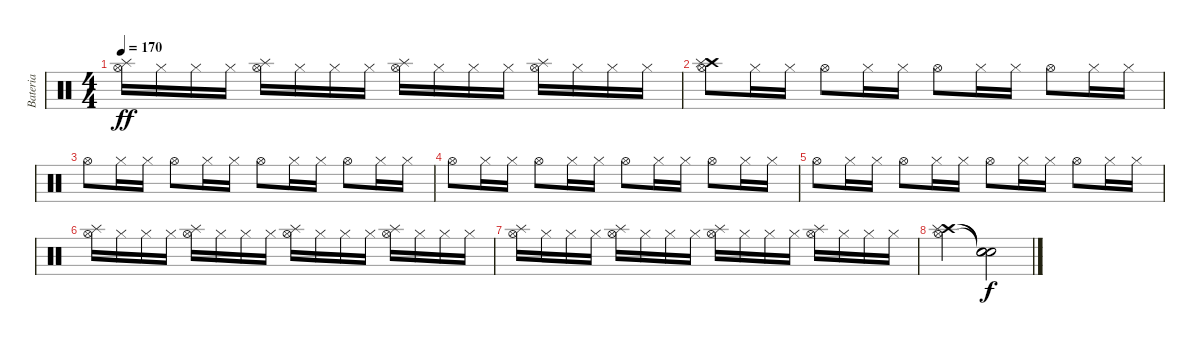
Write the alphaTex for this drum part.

\track ("Bateria" "Bateria") {instrument percussion}
\staff {score}
\articulation defaults
\ts (4 4)
\tempo 170
\clef neutral
\ks c
("Hi-Hat (open)" "Splash (hit)").16{dy ff} "Hi-Hat (closed)".16 "Hi-Hat (closed)".16 "Hi-Hat (closed)".16 ("Hi-Hat (open)" "Splash (hit)").16 "Hi-Hat (closed)".16 "Hi-Hat (closed)".16 "Hi-Hat (closed)".16 ("Hi-Hat (open)" "Splash (hit)").16 "Hi-Hat (closed)".16 "Hi-Hat (closed)".16 "Hi-Hat (closed)".16 ("Hi-Hat (open)" "Splash (hit)").16 "Hi-Hat (closed)".16 "Hi-Hat (closed)".16 "Hi-Hat (closed)".16 |
("Hi-Hat (open)" "Crash high (hit)" "Splash (hit)").8 "Hi-Hat (closed)".16 "Hi-Hat (closed)".16 "Hi-Hat (open)".8 "Hi-Hat (closed)".16 "Hi-Hat (closed)".16 "Hi-Hat (open)".8 "Hi-Hat (closed)".16 "Hi-Hat (closed)".16 "Hi-Hat (open)".8 "Hi-Hat (closed)".16 "Hi-Hat (closed)".16 |
"Hi-Hat (open)".8 "Hi-Hat (closed)".16 "Hi-Hat (closed)".16 "Hi-Hat (open)".8 "Hi-Hat (closed)".16 "Hi-Hat (closed)".16 "Hi-Hat (open)".8 "Hi-Hat (closed)".16 "Hi-Hat (closed)".16 "Hi-Hat (open)".8 "Hi-Hat (closed)".16 "Hi-Hat (closed)".16 |
"Hi-Hat (open)".8 "Hi-Hat (closed)".16 "Hi-Hat (closed)".16 "Hi-Hat (open)".8 "Hi-Hat (closed)".16 "Hi-Hat (closed)".16 "Hi-Hat (open)".8 "Hi-Hat (closed)".16 "Hi-Hat (closed)".16 "Hi-Hat (open)".8 "Hi-Hat (closed)".16 "Hi-Hat (closed)".16 |
"Hi-Hat (open)".8 "Hi-Hat (closed)".16 "Hi-Hat (closed)".16 "Hi-Hat (open)".8 "Hi-Hat (closed)".16 "Hi-Hat (closed)".16 "Hi-Hat (open)".8 "Hi-Hat (closed)".16 "Hi-Hat (closed)".16 "Hi-Hat (open)".8 "Hi-Hat (closed)".16 "Hi-Hat (closed)".16 |
("Hi-Hat (open)" "Splash (hit)").16 "Hi-Hat (closed)".16 "Hi-Hat (closed)".16 "Hi-Hat (closed)".16 ("Hi-Hat (open)" "Splash (hit)").16 "Hi-Hat (closed)".16 "Hi-Hat (closed)".16 "Hi-Hat (closed)".16 ("Hi-Hat (open)" "Splash (hit)").16 "Hi-Hat (closed)".16 "Hi-Hat (closed)".16 "Hi-Hat (closed)".16 ("Hi-Hat (open)" "Splash (hit)").16 "Hi-Hat (closed)".16 "Hi-Hat (closed)".16 "Hi-Hat (closed)".16 |
("Hi-Hat (open)" "Splash (hit)").16 "Hi-Hat (closed)".16 "Hi-Hat (closed)".16 "Hi-Hat (closed)".16 ("Hi-Hat (open)" "Splash (hit)").16 "Hi-Hat (closed)".16 "Hi-Hat (closed)".16 "Hi-Hat (closed)".16 ("Hi-Hat (open)" "Splash (hit)").16 "Hi-Hat (closed)".16 "Hi-Hat (closed)".16 "Hi-Hat (closed)".16 ("Hi-Hat (open)" "Splash (hit)").16 "Hi-Hat (closed)".16 "Hi-Hat (closed)".16 "Hi-Hat (closed)".16 |
("Hi-Hat (open)" "Crash high (hit)" "Splash (hit)").2 ("Snare (hit)"{t} "Snare (hit)"{t} "Snare (hit)"{t}).2{dy f}
